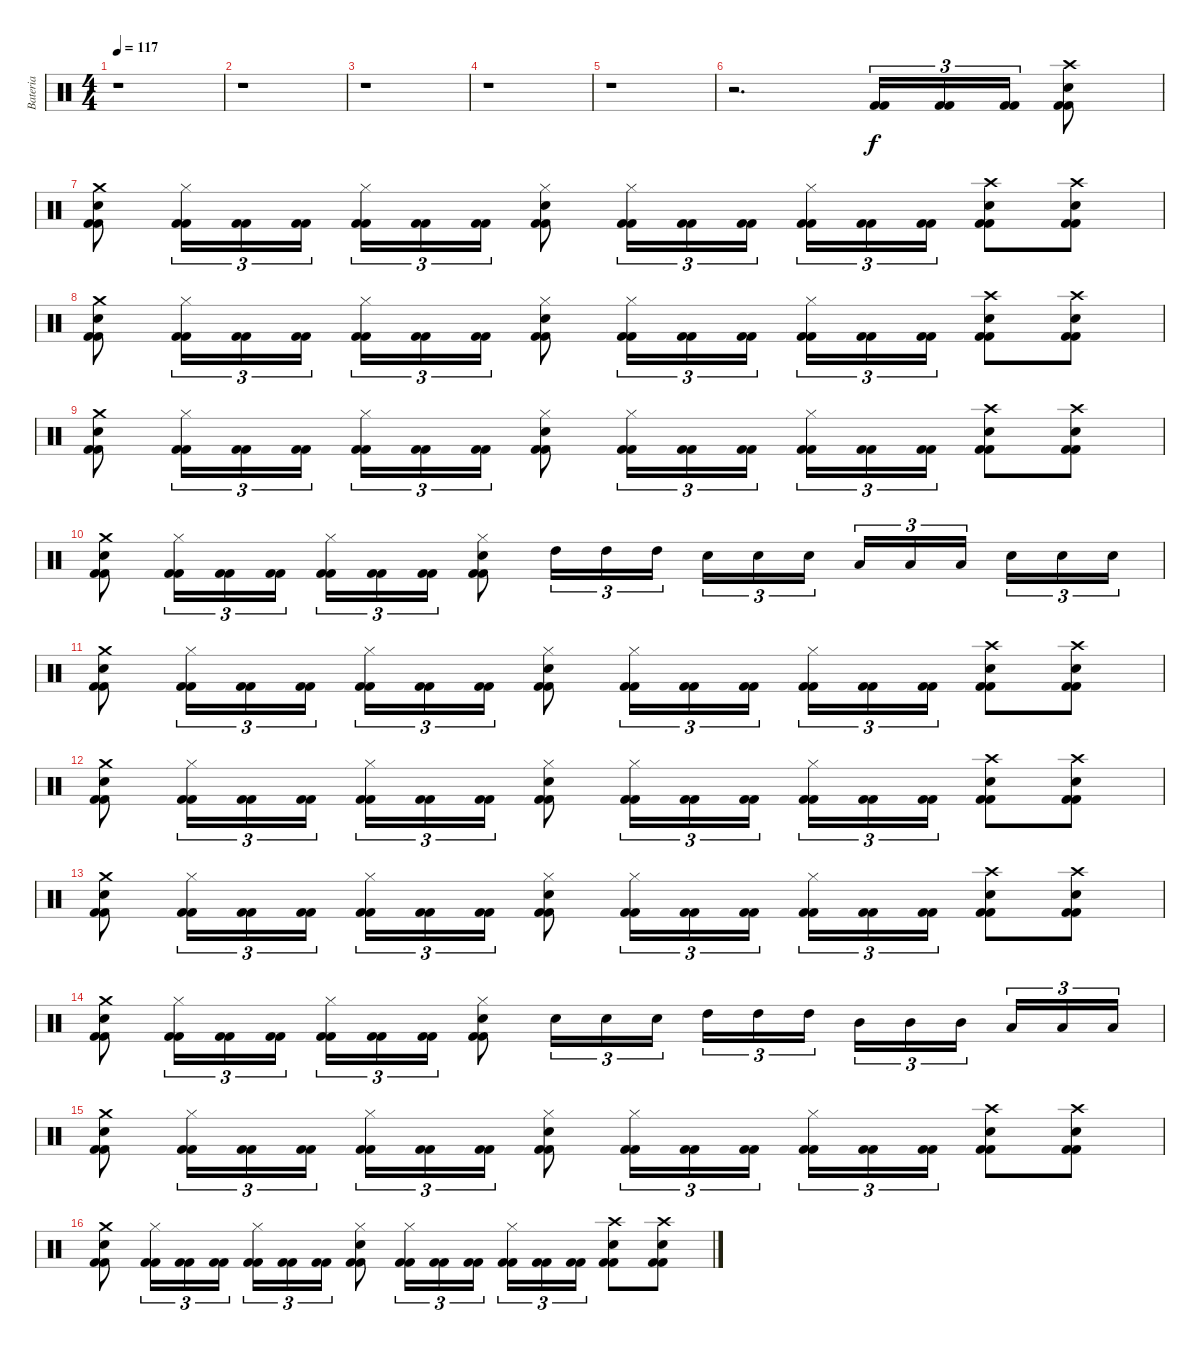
\track ("Bateria" "Bateria") {instrument percussion}
\staff {score}
\articulation defaults
\ts (4 4)
\tempo 117
\clef neutral
\ks c
r.1{dy f} |
r.1 |
r.1 |
r.1 |
r.1 |
r.2{d} ("Kick (hit) 2" "Kick (hit) 2").16{tu (3 2)} ("Kick (hit) 2" "Kick (hit) 2").16{tu (3 2)} ("Kick (hit) 2" "Kick (hit) 2").16{tu (3 2)} ("Kick (hit) 2" "Kick (hit) 2" "Snare (hit) 2" "Crash high (hit)").8 |
("Kick (hit) 2" "Kick (hit) 2" "Snare (hit) 2" "Crash medium (hit)").8 ("Kick (hit) 2" "Kick (hit) 2" "Hi-Hat (closed)").16{tu (3 2)} ("Kick (hit) 2" "Kick (hit) 2").16{tu (3 2)} ("Kick (hit) 2" "Kick (hit) 2").16{tu (3 2)} ("Kick (hit) 2" "Kick (hit) 2" "Hi-Hat (closed)").16{tu (3 2)} ("Kick (hit) 2" "Kick (hit) 2").16{tu (3 2)} ("Kick (hit) 2" "Kick (hit) 2").16{tu (3 2)} ("Kick (hit) 2" "Kick (hit) 2" "Snare (hit) 2" "Hi-Hat (closed)").8 ("Kick (hit) 2" "Kick (hit) 2" "Hi-Hat (closed)").16{tu (3 2)} ("Kick (hit) 2" "Kick (hit) 2").16{tu (3 2)} ("Kick (hit) 2" "Kick (hit) 2").16{tu (3 2)} ("Kick (hit) 2" "Kick (hit) 2" "Hi-Hat (closed)").16{tu (3 2)} ("Kick (hit) 2" "Kick (hit) 2").16{tu (3 2)} ("Kick (hit) 2" "Kick (hit) 2").16{tu (3 2)} ("Kick (hit) 2" "Kick (hit) 2" "Snare (hit) 2" "Crash high (hit)").8 ("Kick (hit) 2" "Kick (hit) 2" "Snare (hit) 2" "Crash high (hit)").8 |
("Kick (hit) 2" "Kick (hit) 2" "Snare (hit) 2" "Crash medium (hit)").8 ("Kick (hit) 2" "Kick (hit) 2" "Hi-Hat (closed)").16{tu (3 2)} ("Kick (hit) 2" "Kick (hit) 2").16{tu (3 2)} ("Kick (hit) 2" "Kick (hit) 2").16{tu (3 2)} ("Kick (hit) 2" "Kick (hit) 2" "Hi-Hat (closed)").16{tu (3 2)} ("Kick (hit) 2" "Kick (hit) 2").16{tu (3 2)} ("Kick (hit) 2" "Kick (hit) 2").16{tu (3 2)} ("Kick (hit) 2" "Kick (hit) 2" "Snare (hit) 2" "Hi-Hat (closed)").8 ("Kick (hit) 2" "Kick (hit) 2" "Hi-Hat (closed)").16{tu (3 2)} ("Kick (hit) 2" "Kick (hit) 2").16{tu (3 2)} ("Kick (hit) 2" "Kick (hit) 2").16{tu (3 2)} ("Kick (hit) 2" "Kick (hit) 2" "Hi-Hat (closed)").16{tu (3 2)} ("Kick (hit) 2" "Kick (hit) 2").16{tu (3 2)} ("Kick (hit) 2" "Kick (hit) 2").16{tu (3 2)} ("Kick (hit) 2" "Kick (hit) 2" "Snare (hit) 2" "Crash high (hit)").8 ("Kick (hit) 2" "Kick (hit) 2" "Snare (hit) 2" "Crash high (hit)").8 |
("Kick (hit) 2" "Kick (hit) 2" "Snare (hit) 2" "Crash medium (hit)").8 ("Kick (hit) 2" "Kick (hit) 2" "Hi-Hat (closed)").16{tu (3 2)} ("Kick (hit) 2" "Kick (hit) 2").16{tu (3 2)} ("Kick (hit) 2" "Kick (hit) 2").16{tu (3 2)} ("Kick (hit) 2" "Kick (hit) 2" "Hi-Hat (closed)").16{tu (3 2)} ("Kick (hit) 2" "Kick (hit) 2").16{tu (3 2)} ("Kick (hit) 2" "Kick (hit) 2").16{tu (3 2)} ("Kick (hit) 2" "Kick (hit) 2" "Snare (hit) 2" "Hi-Hat (closed)").8 ("Kick (hit) 2" "Kick (hit) 2" "Hi-Hat (closed)").16{tu (3 2)} ("Kick (hit) 2" "Kick (hit) 2").16{tu (3 2)} ("Kick (hit) 2" "Kick (hit) 2").16{tu (3 2)} ("Kick (hit) 2" "Kick (hit) 2" "Hi-Hat (closed)").16{tu (3 2)} ("Kick (hit) 2" "Kick (hit) 2").16{tu (3 2)} ("Kick (hit) 2" "Kick (hit) 2").16{tu (3 2)} ("Kick (hit) 2" "Kick (hit) 2" "Snare (hit) 2" "Crash high (hit)").8 ("Kick (hit) 2" "Kick (hit) 2" "Snare (hit) 2" "Crash high (hit)").8 |
("Kick (hit) 2" "Kick (hit) 2" "Snare (hit) 2" "Crash medium (hit)").8 ("Kick (hit) 2" "Kick (hit) 2" "Hi-Hat (closed)").16{tu (3 2)} ("Kick (hit) 2" "Kick (hit) 2").16{tu (3 2)} ("Kick (hit) 2" "Kick (hit) 2").16{tu (3 2)} ("Kick (hit) 2" "Kick (hit) 2" "Hi-Hat (closed)").16{tu (3 2)} ("Kick (hit) 2" "Kick (hit) 2").16{tu (3 2)} ("Kick (hit) 2" "Kick (hit) 2").16{tu (3 2)} ("Kick (hit) 2" "Kick (hit) 2" "Snare (hit) 2" "Hi-Hat (closed)").8 "High Tom (hit)".16{tu (3 2)} "High Tom (hit)".16{tu (3 2)} "High Tom (hit)".16{tu (3 2)} "Snare (hit) 2".16{tu (3 2)} "Snare (hit) 2".16{tu (3 2)} "Snare (hit) 2".16{tu (3 2)} "Low Tom (hit)".16{tu (3 2)} "Low Tom (hit)".16{tu (3 2)} "Low Tom (hit)".16{tu (3 2)} "Snare (hit) 2".16{tu (3 2)} "Snare (hit) 2".16{tu (3 2)} "Snare (hit) 2".16{tu (3 2)} |
("Kick (hit) 2" "Kick (hit) 2" "Snare (hit) 2" "Crash medium (hit)").8 ("Kick (hit) 2" "Kick (hit) 2" "Hi-Hat (closed)").16{tu (3 2)} ("Kick (hit) 2" "Kick (hit) 2").16{tu (3 2)} ("Kick (hit) 2" "Kick (hit) 2").16{tu (3 2)} ("Kick (hit) 2" "Kick (hit) 2" "Hi-Hat (closed)").16{tu (3 2)} ("Kick (hit) 2" "Kick (hit) 2").16{tu (3 2)} ("Kick (hit) 2" "Kick (hit) 2").16{tu (3 2)} ("Kick (hit) 2" "Kick (hit) 2" "Snare (hit) 2" "Hi-Hat (closed)").8 ("Kick (hit) 2" "Kick (hit) 2" "Hi-Hat (closed)").16{tu (3 2)} ("Kick (hit) 2" "Kick (hit) 2").16{tu (3 2)} ("Kick (hit) 2" "Kick (hit) 2").16{tu (3 2)} ("Kick (hit) 2" "Kick (hit) 2" "Hi-Hat (closed)").16{tu (3 2)} ("Kick (hit) 2" "Kick (hit) 2").16{tu (3 2)} ("Kick (hit) 2" "Kick (hit) 2").16{tu (3 2)} ("Kick (hit) 2" "Kick (hit) 2" "Snare (hit) 2" "Crash high (hit)").8 ("Kick (hit) 2" "Kick (hit) 2" "Snare (hit) 2" "Crash high (hit)").8 |
("Kick (hit) 2" "Kick (hit) 2" "Snare (hit) 2" "Crash medium (hit)").8 ("Kick (hit) 2" "Kick (hit) 2" "Hi-Hat (closed)").16{tu (3 2)} ("Kick (hit) 2" "Kick (hit) 2").16{tu (3 2)} ("Kick (hit) 2" "Kick (hit) 2").16{tu (3 2)} ("Kick (hit) 2" "Kick (hit) 2" "Hi-Hat (closed)").16{tu (3 2)} ("Kick (hit) 2" "Kick (hit) 2").16{tu (3 2)} ("Kick (hit) 2" "Kick (hit) 2").16{tu (3 2)} ("Kick (hit) 2" "Kick (hit) 2" "Snare (hit) 2" "Hi-Hat (closed)").8 ("Kick (hit) 2" "Kick (hit) 2" "Hi-Hat (closed)").16{tu (3 2)} ("Kick (hit) 2" "Kick (hit) 2").16{tu (3 2)} ("Kick (hit) 2" "Kick (hit) 2").16{tu (3 2)} ("Kick (hit) 2" "Kick (hit) 2" "Hi-Hat (closed)").16{tu (3 2)} ("Kick (hit) 2" "Kick (hit) 2").16{tu (3 2)} ("Kick (hit) 2" "Kick (hit) 2").16{tu (3 2)} ("Kick (hit) 2" "Kick (hit) 2" "Snare (hit) 2" "Crash high (hit)").8 ("Kick (hit) 2" "Kick (hit) 2" "Snare (hit) 2" "Crash high (hit)").8 |
("Kick (hit) 2" "Kick (hit) 2" "Snare (hit) 2" "Crash medium (hit)").8 ("Kick (hit) 2" "Kick (hit) 2" "Hi-Hat (closed)").16{tu (3 2)} ("Kick (hit) 2" "Kick (hit) 2").16{tu (3 2)} ("Kick (hit) 2" "Kick (hit) 2").16{tu (3 2)} ("Kick (hit) 2" "Kick (hit) 2" "Hi-Hat (closed)").16{tu (3 2)} ("Kick (hit) 2" "Kick (hit) 2").16{tu (3 2)} ("Kick (hit) 2" "Kick (hit) 2").16{tu (3 2)} ("Kick (hit) 2" "Kick (hit) 2" "Snare (hit) 2" "Hi-Hat (closed)").8 ("Kick (hit) 2" "Kick (hit) 2" "Hi-Hat (closed)").16{tu (3 2)} ("Kick (hit) 2" "Kick (hit) 2").16{tu (3 2)} ("Kick (hit) 2" "Kick (hit) 2").16{tu (3 2)} ("Kick (hit) 2" "Kick (hit) 2" "Hi-Hat (closed)").16{tu (3 2)} ("Kick (hit) 2" "Kick (hit) 2").16{tu (3 2)} ("Kick (hit) 2" "Kick (hit) 2").16{tu (3 2)} ("Kick (hit) 2" "Kick (hit) 2" "Snare (hit) 2" "Crash high (hit)").8 ("Kick (hit) 2" "Kick (hit) 2" "Snare (hit) 2" "Crash high (hit)").8 |
("Kick (hit) 2" "Kick (hit) 2" "Snare (hit) 2" "Crash medium (hit)").8 ("Kick (hit) 2" "Kick (hit) 2" "Hi-Hat (closed)").16{tu (3 2)} ("Kick (hit) 2" "Kick (hit) 2").16{tu (3 2)} ("Kick (hit) 2" "Kick (hit) 2").16{tu (3 2)} ("Kick (hit) 2" "Kick (hit) 2" "Hi-Hat (closed)").16{tu (3 2)} ("Kick (hit) 2" "Kick (hit) 2").16{tu (3 2)} ("Kick (hit) 2" "Kick (hit) 2").16{tu (3 2)} ("Kick (hit) 2" "Kick (hit) 2" "Snare (hit) 2" "Hi-Hat (closed)").8 "Snare (hit) 2".16{tu (3 2)} "Snare (hit) 2".16{tu (3 2)} "Snare (hit) 2".16{tu (3 2)} "High Tom (hit)".16{tu (3 2)} "High Tom (hit)".16{tu (3 2)} "High Tom (hit)".16{tu (3 2)} "Mid Tom (hit)".16{tu (3 2)} "Mid Tom (hit)".16{tu (3 2)} "Mid Tom (hit)".16{tu (3 2)} "Low Tom (hit)".16{tu (3 2)} "Low Tom (hit)".16{tu (3 2)} "Low Tom (hit)".16{tu (3 2)} |
("Kick (hit) 2" "Kick (hit) 2" "Snare (hit) 2" "Crash medium (hit)").8 ("Kick (hit) 2" "Kick (hit) 2" "Hi-Hat (closed)").16{tu (3 2)} ("Kick (hit) 2" "Kick (hit) 2").16{tu (3 2)} ("Kick (hit) 2" "Kick (hit) 2").16{tu (3 2)} ("Kick (hit) 2" "Kick (hit) 2" "Hi-Hat (closed)").16{tu (3 2)} ("Kick (hit) 2" "Kick (hit) 2").16{tu (3 2)} ("Kick (hit) 2" "Kick (hit) 2").16{tu (3 2)} ("Kick (hit) 2" "Kick (hit) 2" "Snare (hit) 2" "Hi-Hat (closed)").8 ("Kick (hit) 2" "Kick (hit) 2" "Hi-Hat (closed)").16{tu (3 2)} ("Kick (hit) 2" "Kick (hit) 2").16{tu (3 2)} ("Kick (hit) 2" "Kick (hit) 2").16{tu (3 2)} ("Kick (hit) 2" "Kick (hit) 2" "Hi-Hat (closed)").16{tu (3 2)} ("Kick (hit) 2" "Kick (hit) 2").16{tu (3 2)} ("Kick (hit) 2" "Kick (hit) 2").16{tu (3 2)} ("Kick (hit) 2" "Kick (hit) 2" "Snare (hit) 2" "Crash high (hit)").8 ("Kick (hit) 2" "Kick (hit) 2" "Snare (hit) 2" "Crash high (hit)").8 |
("Kick (hit) 2" "Kick (hit) 2" "Snare (hit) 2" "Crash medium (hit)").8 ("Kick (hit) 2" "Kick (hit) 2" "Hi-Hat (closed)").16{tu (3 2)} ("Kick (hit) 2" "Kick (hit) 2").16{tu (3 2)} ("Kick (hit) 2" "Kick (hit) 2").16{tu (3 2)} ("Kick (hit) 2" "Kick (hit) 2" "Hi-Hat (closed)").16{tu (3 2)} ("Kick (hit) 2" "Kick (hit) 2").16{tu (3 2)} ("Kick (hit) 2" "Kick (hit) 2").16{tu (3 2)} ("Kick (hit) 2" "Kick (hit) 2" "Snare (hit) 2" "Hi-Hat (closed)").8 ("Kick (hit) 2" "Kick (hit) 2" "Hi-Hat (closed)").16{tu (3 2)} ("Kick (hit) 2" "Kick (hit) 2").16{tu (3 2)} ("Kick (hit) 2" "Kick (hit) 2").16{tu (3 2)} ("Kick (hit) 2" "Kick (hit) 2" "Hi-Hat (closed)").16{tu (3 2)} ("Kick (hit) 2" "Kick (hit) 2").16{tu (3 2)} ("Kick (hit) 2" "Kick (hit) 2").16{tu (3 2)} ("Kick (hit) 2" "Kick (hit) 2" "Snare (hit) 2" "Crash high (hit)").8 ("Kick (hit) 2" "Kick (hit) 2" "Snare (hit) 2" "Crash high (hit)").8
